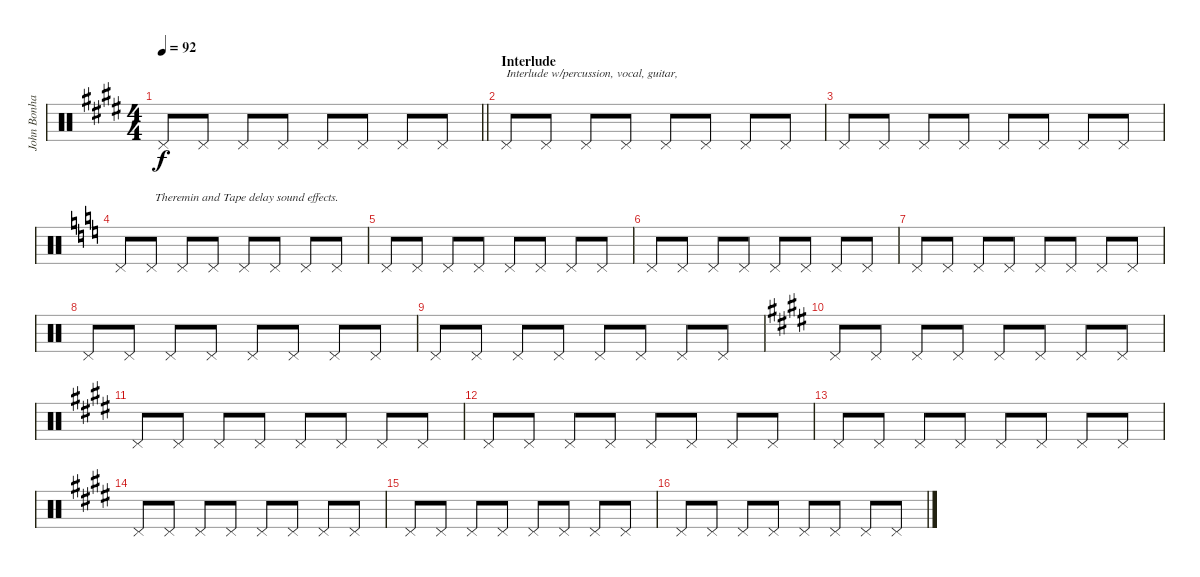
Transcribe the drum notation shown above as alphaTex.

\track ("John Bonham Drums" "John Bonha") {instrument percussion}
\staff {score}
\articulation defaults
\ts (4 4)
\tempo 92
\clef neutral
\barLineRight lightlight
\ks e "Pedal Hi-Hat (hit)".8{dy f} "Pedal Hi-Hat (hit)".8 "Pedal Hi-Hat (hit)".8 "Pedal Hi-Hat (hit)".8 "Pedal Hi-Hat (hit)".8 "Pedal Hi-Hat (hit)".8 "Pedal Hi-Hat (hit)".8 "Pedal Hi-Hat (hit)".8
|
\section ("" "Interlude")
"Pedal Hi-Hat (hit)".8{txt "Interlude w/percussion, vocal, guitar,"} "Pedal Hi-Hat (hit)".8 "Pedal Hi-Hat (hit)".8 "Pedal Hi-Hat (hit)".8 "Pedal Hi-Hat (hit)".8 "Pedal Hi-Hat (hit)".8 "Pedal Hi-Hat (hit)".8 "Pedal Hi-Hat (hit)".8 |
"Pedal Hi-Hat (hit)".8 "Pedal Hi-Hat (hit)".8 "Pedal Hi-Hat (hit)".8 "Pedal Hi-Hat (hit)".8 "Pedal Hi-Hat (hit)".8 "Pedal Hi-Hat (hit)".8 "Pedal Hi-Hat (hit)".8 "Pedal Hi-Hat (hit)".8 |
\ks c "Pedal Hi-Hat (hit)".8 "Pedal Hi-Hat (hit)".8{txt " Theremin and Tape delay sound effects."} "Pedal Hi-Hat (hit)".8 "Pedal Hi-Hat (hit)".8 "Pedal Hi-Hat (hit)".8 "Pedal Hi-Hat (hit)".8 "Pedal Hi-Hat (hit)".8 "Pedal Hi-Hat (hit)".8
|
"Pedal Hi-Hat (hit)".8 "Pedal Hi-Hat (hit)".8 "Pedal Hi-Hat (hit)".8 "Pedal Hi-Hat (hit)".8 "Pedal Hi-Hat (hit)".8 "Pedal Hi-Hat (hit)".8 "Pedal Hi-Hat (hit)".8 "Pedal Hi-Hat (hit)".8 |
"Pedal Hi-Hat (hit)".8 "Pedal Hi-Hat (hit)".8 "Pedal Hi-Hat (hit)".8 "Pedal Hi-Hat (hit)".8 "Pedal Hi-Hat (hit)".8 "Pedal Hi-Hat (hit)".8 "Pedal Hi-Hat (hit)".8 "Pedal Hi-Hat (hit)".8 |
"Pedal Hi-Hat (hit)".8 "Pedal Hi-Hat (hit)".8 "Pedal Hi-Hat (hit)".8 "Pedal Hi-Hat (hit)".8 "Pedal Hi-Hat (hit)".8 "Pedal Hi-Hat (hit)".8 "Pedal Hi-Hat (hit)".8 "Pedal Hi-Hat (hit)".8 |
"Pedal Hi-Hat (hit)".8 "Pedal Hi-Hat (hit)".8 "Pedal Hi-Hat (hit)".8 "Pedal Hi-Hat (hit)".8 "Pedal Hi-Hat (hit)".8 "Pedal Hi-Hat (hit)".8 "Pedal Hi-Hat (hit)".8 "Pedal Hi-Hat (hit)".8 |
"Pedal Hi-Hat (hit)".8 "Pedal Hi-Hat (hit)".8 "Pedal Hi-Hat (hit)".8 "Pedal Hi-Hat (hit)".8 "Pedal Hi-Hat (hit)".8 "Pedal Hi-Hat (hit)".8 "Pedal Hi-Hat (hit)".8 "Pedal Hi-Hat (hit)".8 |
\ks e "Pedal Hi-Hat (hit)".8 "Pedal Hi-Hat (hit)".8 "Pedal Hi-Hat (hit)".8 "Pedal Hi-Hat (hit)".8 "Pedal Hi-Hat (hit)".8 "Pedal Hi-Hat (hit)".8 "Pedal Hi-Hat (hit)".8 "Pedal Hi-Hat (hit)".8
|
"Pedal Hi-Hat (hit)".8 "Pedal Hi-Hat (hit)".8 "Pedal Hi-Hat (hit)".8 "Pedal Hi-Hat (hit)".8 "Pedal Hi-Hat (hit)".8 "Pedal Hi-Hat (hit)".8 "Pedal Hi-Hat (hit)".8 "Pedal Hi-Hat (hit)".8 |
"Pedal Hi-Hat (hit)".8 "Pedal Hi-Hat (hit)".8 "Pedal Hi-Hat (hit)".8 "Pedal Hi-Hat (hit)".8 "Pedal Hi-Hat (hit)".8 "Pedal Hi-Hat (hit)".8 "Pedal Hi-Hat (hit)".8 "Pedal Hi-Hat (hit)".8 |
"Pedal Hi-Hat (hit)".8 "Pedal Hi-Hat (hit)".8 "Pedal Hi-Hat (hit)".8 "Pedal Hi-Hat (hit)".8 "Pedal Hi-Hat (hit)".8 "Pedal Hi-Hat (hit)".8 "Pedal Hi-Hat (hit)".8 "Pedal Hi-Hat (hit)".8 |
"Pedal Hi-Hat (hit)".8 "Pedal Hi-Hat (hit)".8 "Pedal Hi-Hat (hit)".8 "Pedal Hi-Hat (hit)".8 "Pedal Hi-Hat (hit)".8 "Pedal Hi-Hat (hit)".8 "Pedal Hi-Hat (hit)".8 "Pedal Hi-Hat (hit)".8 |
"Pedal Hi-Hat (hit)".8 "Pedal Hi-Hat (hit)".8 "Pedal Hi-Hat (hit)".8 "Pedal Hi-Hat (hit)".8 "Pedal Hi-Hat (hit)".8 "Pedal Hi-Hat (hit)".8 "Pedal Hi-Hat (hit)".8 "Pedal Hi-Hat (hit)".8 |
"Pedal Hi-Hat (hit)".8 "Pedal Hi-Hat (hit)".8 "Pedal Hi-Hat (hit)".8 "Pedal Hi-Hat (hit)".8 "Pedal Hi-Hat (hit)".8 "Pedal Hi-Hat (hit)".8 "Pedal Hi-Hat (hit)".8 "Pedal Hi-Hat (hit)".8
